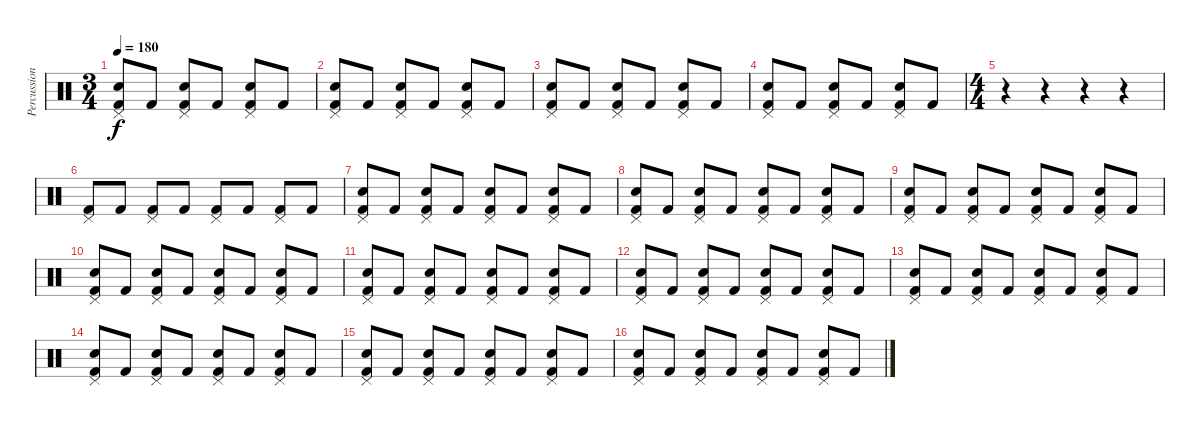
\track ("Percussion" "Percussion") {instrument percussion}
\staff {score}
\articulation defaults
\ts (3 4)
\tempo 180
\clef neutral
\ks c
("Snare (hit) 2" "Pedal Hi-Hat (hit)" "Kick (hit) 2").8{dy f} "Kick (hit) 2".8 ("Snare (hit) 2" "Pedal Hi-Hat (hit)" "Kick (hit) 2").8 "Kick (hit) 2".8 ("Snare (hit) 2" "Pedal Hi-Hat (hit)" "Kick (hit) 2").8 "Kick (hit) 2".8 |
("Snare (hit) 2" "Pedal Hi-Hat (hit)" "Kick (hit) 2").8 "Kick (hit) 2".8 ("Snare (hit) 2" "Pedal Hi-Hat (hit)" "Kick (hit) 2").8 "Kick (hit) 2".8 ("Snare (hit) 2" "Pedal Hi-Hat (hit)" "Kick (hit) 2").8 "Kick (hit) 2".8 |
("Snare (hit) 2" "Pedal Hi-Hat (hit)" "Kick (hit) 2").8 "Kick (hit) 2".8 ("Snare (hit) 2" "Pedal Hi-Hat (hit)" "Kick (hit) 2").8 "Kick (hit) 2".8 ("Snare (hit) 2" "Pedal Hi-Hat (hit)" "Kick (hit) 2").8 "Kick (hit) 2".8 |
("Snare (hit) 2" "Pedal Hi-Hat (hit)" "Kick (hit) 2").8 "Kick (hit) 2".8 ("Snare (hit) 2" "Pedal Hi-Hat (hit)" "Kick (hit) 2").8 "Kick (hit) 2".8 ("Snare (hit) 2" "Pedal Hi-Hat (hit)" "Kick (hit) 2").8 "Kick (hit) 2".8 |
\ts (4 4)
r.4 r.4 r.4 r.4 |
("Pedal Hi-Hat (hit)" "Kick (hit) 2").8 "Kick (hit) 2".8 ("Pedal Hi-Hat (hit)" "Kick (hit) 2").8 "Kick (hit) 2".8 ("Pedal Hi-Hat (hit)" "Kick (hit) 2").8 "Kick (hit) 2".8 ("Pedal Hi-Hat (hit)" "Kick (hit) 2").8 "Kick (hit) 2".8 |
("Snare (hit) 2" "Pedal Hi-Hat (hit)" "Kick (hit) 2").8 "Kick (hit) 2".8 ("Snare (hit) 2" "Pedal Hi-Hat (hit)" "Kick (hit) 2").8 "Kick (hit) 2".8 ("Snare (hit) 2" "Pedal Hi-Hat (hit)" "Kick (hit) 2").8 "Kick (hit) 2".8 ("Snare (hit) 2" "Pedal Hi-Hat (hit)" "Kick (hit) 2").8 "Kick (hit) 2".8 |
("Snare (hit) 2" "Pedal Hi-Hat (hit)" "Kick (hit) 2").8 "Kick (hit) 2".8 ("Snare (hit) 2" "Pedal Hi-Hat (hit)" "Kick (hit) 2").8 "Kick (hit) 2".8 ("Snare (hit) 2" "Pedal Hi-Hat (hit)" "Kick (hit) 2").8 "Kick (hit) 2".8 ("Snare (hit) 2" "Pedal Hi-Hat (hit)" "Kick (hit) 2").8 "Kick (hit) 2".8 |
("Snare (hit) 2" "Pedal Hi-Hat (hit)" "Kick (hit) 2").8 "Kick (hit) 2".8 ("Snare (hit) 2" "Pedal Hi-Hat (hit)" "Kick (hit) 2").8 "Kick (hit) 2".8 ("Snare (hit) 2" "Pedal Hi-Hat (hit)" "Kick (hit) 2").8 "Kick (hit) 2".8 ("Snare (hit) 2" "Pedal Hi-Hat (hit)" "Kick (hit) 2").8 "Kick (hit) 2".8 |
("Snare (hit) 2" "Pedal Hi-Hat (hit)" "Kick (hit) 2").8 "Kick (hit) 2".8 ("Snare (hit) 2" "Pedal Hi-Hat (hit)" "Kick (hit) 2").8 "Kick (hit) 2".8 ("Snare (hit) 2" "Pedal Hi-Hat (hit)" "Kick (hit) 2").8 "Kick (hit) 2".8 ("Snare (hit) 2" "Pedal Hi-Hat (hit)" "Kick (hit) 2").8 "Kick (hit) 2".8 |
("Snare (hit) 2" "Pedal Hi-Hat (hit)" "Kick (hit) 2").8 "Kick (hit) 2".8 ("Snare (hit) 2" "Pedal Hi-Hat (hit)" "Kick (hit) 2").8 "Kick (hit) 2".8 ("Snare (hit) 2" "Pedal Hi-Hat (hit)" "Kick (hit) 2").8 "Kick (hit) 2".8 ("Snare (hit) 2" "Pedal Hi-Hat (hit)" "Kick (hit) 2").8 "Kick (hit) 2".8 |
("Snare (hit) 2" "Pedal Hi-Hat (hit)" "Kick (hit) 2").8 "Kick (hit) 2".8 ("Snare (hit) 2" "Pedal Hi-Hat (hit)" "Kick (hit) 2").8 "Kick (hit) 2".8 ("Snare (hit) 2" "Pedal Hi-Hat (hit)" "Kick (hit) 2").8 "Kick (hit) 2".8 ("Snare (hit) 2" "Pedal Hi-Hat (hit)" "Kick (hit) 2").8 "Kick (hit) 2".8 |
("Snare (hit) 2" "Pedal Hi-Hat (hit)" "Kick (hit) 2").8 "Kick (hit) 2".8 ("Snare (hit) 2" "Pedal Hi-Hat (hit)" "Kick (hit) 2").8 "Kick (hit) 2".8 ("Snare (hit) 2" "Pedal Hi-Hat (hit)" "Kick (hit) 2").8 "Kick (hit) 2".8 ("Snare (hit) 2" "Pedal Hi-Hat (hit)" "Kick (hit) 2").8 "Kick (hit) 2".8 |
("Snare (hit) 2" "Pedal Hi-Hat (hit)" "Kick (hit) 2").8 "Kick (hit) 2".8 ("Snare (hit) 2" "Pedal Hi-Hat (hit)" "Kick (hit) 2").8 "Kick (hit) 2".8 ("Snare (hit) 2" "Pedal Hi-Hat (hit)" "Kick (hit) 2").8 "Kick (hit) 2".8 ("Snare (hit) 2" "Pedal Hi-Hat (hit)" "Kick (hit) 2").8 "Kick (hit) 2".8 |
("Snare (hit) 2" "Pedal Hi-Hat (hit)" "Kick (hit) 2").8 "Kick (hit) 2".8 ("Snare (hit) 2" "Pedal Hi-Hat (hit)" "Kick (hit) 2").8 "Kick (hit) 2".8 ("Snare (hit) 2" "Pedal Hi-Hat (hit)" "Kick (hit) 2").8 "Kick (hit) 2".8 ("Snare (hit) 2" "Pedal Hi-Hat (hit)" "Kick (hit) 2").8 "Kick (hit) 2".8 |
("Snare (hit) 2" "Pedal Hi-Hat (hit)" "Kick (hit) 2").8 "Kick (hit) 2".8 ("Snare (hit) 2" "Pedal Hi-Hat (hit)" "Kick (hit) 2").8 "Kick (hit) 2".8 ("Snare (hit) 2" "Pedal Hi-Hat (hit)" "Kick (hit) 2").8 "Kick (hit) 2".8 ("Snare (hit) 2" "Pedal Hi-Hat (hit)" "Kick (hit) 2").8 "Kick (hit) 2".8
